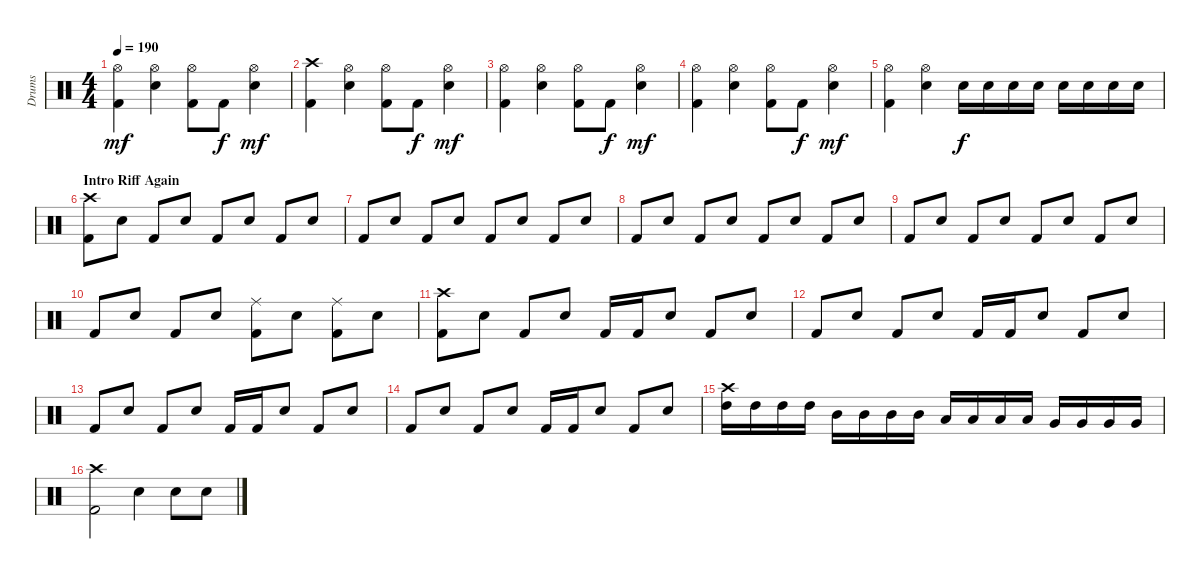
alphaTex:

\track ("Drums" "Drums") {instrument percussion}
\staff {score}
\articulation defaults
\ts (4 4)
\tempo 190
\clef neutral
\ks c
("Hi-Hat (open)" "Kick (hit) 2").4{dy mf} ("Hi-Hat (open)" "Snare (hit) 2").4 ("Hi-Hat (open)" "Kick (hit) 2").8 "Kick (hit) 2".8{dy f} ("Hi-Hat (open)" "Snare (hit) 2").4{dy mf} |
("Crash high (hit)" "Kick (hit) 2").4 ("Hi-Hat (open)" "Snare (hit) 2").4 ("Hi-Hat (open)" "Kick (hit) 2").8 "Kick (hit) 2".8{dy f} ("Hi-Hat (open)" "Snare (hit) 2").4{dy mf} |
("Hi-Hat (open)" "Kick (hit) 2").4 ("Hi-Hat (open)" "Snare (hit) 2").4 ("Hi-Hat (open)" "Kick (hit) 2").8 "Kick (hit) 2".8{dy f} ("Hi-Hat (open)" "Snare (hit) 2").4{dy mf} |
("Hi-Hat (open)" "Kick (hit) 2").4 ("Hi-Hat (open)" "Snare (hit) 2").4 ("Hi-Hat (open)" "Kick (hit) 2").8 "Kick (hit) 2".8{dy f} ("Hi-Hat (open)" "Snare (hit) 2").4{dy mf} |
("Hi-Hat (open)" "Kick (hit) 2").4 ("Hi-Hat (open)" "Snare (hit) 2").4 "Snare (hit) 2".16{dy f} "Snare (hit) 2".16 "Snare (hit) 2".16 "Snare (hit) 2".16 "Snare (hit) 2".16 "Snare (hit) 2".16 "Snare (hit) 2".16 "Snare (hit) 2".16 |
\section ("" "Intro Riff Again")
("Crash high (hit)" "Kick (hit) 2").8 "Snare (hit) 2".8 "Kick (hit) 2".8 "Snare (hit) 2".8 "Kick (hit) 2".8 "Snare (hit) 2".8 "Kick (hit) 2".8 "Snare (hit) 2".8 |
"Kick (hit) 2".8 "Snare (hit) 2".8 "Kick (hit) 2".8 "Snare (hit) 2".8 "Kick (hit) 2".8 "Snare (hit) 2".8 "Kick (hit) 2".8 "Snare (hit) 2".8 |
"Kick (hit) 2".8 "Snare (hit) 2".8 "Kick (hit) 2".8 "Snare (hit) 2".8 "Kick (hit) 2".8 "Snare (hit) 2".8 "Kick (hit) 2".8 "Snare (hit) 2".8 |
"Kick (hit) 2".8 "Snare (hit) 2".8 "Kick (hit) 2".8 "Snare (hit) 2".8 "Kick (hit) 2".8 "Snare (hit) 2".8 "Kick (hit) 2".8 "Snare (hit) 2".8 |
"Kick (hit) 2".8 "Snare (hit) 2".8 "Kick (hit) 2".8 "Snare (hit) 2".8 ("Ride (middle)" "Kick (hit) 2").8 "Snare (hit) 2".8 ("Ride (middle)" "Kick (hit) 2").8 "Snare (hit) 2".8 |
("Crash high (hit)" "Kick (hit) 2").8 "Snare (hit) 2".8 "Kick (hit) 2".8 "Snare (hit) 2".8 "Kick (hit) 2".16 "Kick (hit) 2".16 "Snare (hit) 2".8 "Kick (hit) 2".8 "Snare (hit) 2".8 |
"Kick (hit) 2".8 "Snare (hit) 2".8 "Kick (hit) 2".8 "Snare (hit) 2".8 "Kick (hit) 2".16 "Kick (hit) 2".16 "Snare (hit) 2".8 "Kick (hit) 2".8 "Snare (hit) 2".8 |
"Kick (hit) 2".8 "Snare (hit) 2".8 "Kick (hit) 2".8 "Snare (hit) 2".8 "Kick (hit) 2".16 "Kick (hit) 2".16 "Snare (hit) 2".8 "Kick (hit) 2".8 "Snare (hit) 2".8 |
"Kick (hit) 2".8 "Snare (hit) 2".8 "Kick (hit) 2".8 "Snare (hit) 2".8 "Kick (hit) 2".16 "Kick (hit) 2".16 "Snare (hit) 2".8 "Kick (hit) 2".8 "Snare (hit) 2".8 |
("Crash high (hit)" "High Tom (hit)").16 "High Tom (hit)".16 "High Tom (hit)".16 "High Tom (hit)".16 "Mid Tom (hit)".16 "Mid Tom (hit)".16 "Mid Tom (hit)".16 "Mid Tom (hit)".16 "Low Tom (hit)".16 "Low Tom (hit)".16 "Low Tom (hit)".16 "Low Tom (hit)".16 "Very Low Tom (hit)".16 "Very Low Tom (hit)".16 "Very Low Tom (hit)".16 "Very Low Tom (hit)".16 |
("Crash high (hit)" "Kick (hit) 2").2 "Snare (hit) 2".4 "Snare (hit) 2".8 "Snare (hit) 2".8
